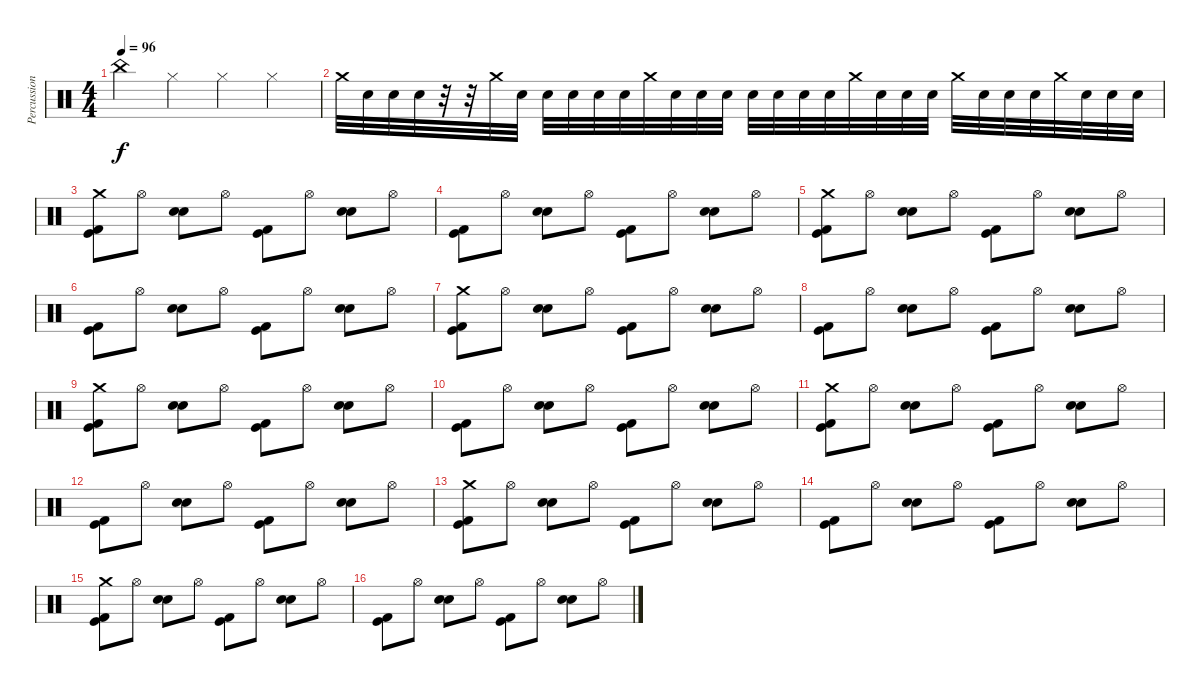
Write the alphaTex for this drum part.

\track ("Percussion" "Percussion") {instrument percussion}
\staff {score}
\articulation defaults
\ts (4 4)
\tempo 96
\clef neutral
\ks c "China (hit)".4{dy f} "Hi-Hat (closed)".4 "Hi-Hat (closed)".4 "Hi-Hat (closed)".4
|
"Crash medium (hit)".32 "Snare (hit)".32 "Snare (hit)".32 "Snare (hit)".32 r.32 r.32 "Crash medium (hit)".32 "Snare (hit)".32 "Snare (hit)".32 "Snare (hit)".32 "Snare (hit)".32 "Snare (hit)".32 "Crash medium (hit)".32 "Snare (hit)".32 "Snare (hit)".32 "Snare (hit)".32 "Snare (hit)".32 "Snare (hit)".32 "Snare (hit)".32 "Snare (hit)".32 "Crash medium (hit)".32 "Snare (hit)".32 "Snare (hit)".32 "Snare (hit)".32 "Crash medium (hit)".32 "Snare (hit)".32 "Snare (hit)".32 "Snare (hit)".32 "Crash medium (hit)".32 "Snare (hit)".32 "Snare (hit)".32 "Snare (hit)".32 |
("Crash medium (hit)" "Kick (hit) 2" "Kick (hit)").8 "Hi-Hat (open)".8 ("Snare (hit) 2" "Electric Snare (hit)").8 "Hi-Hat (open)".8 ("Kick (hit)" "Kick (hit) 2").8 "Hi-Hat (open)".8 ("Electric Snare (hit)" "Snare (hit) 2").8 "Hi-Hat (open)".8 |
("Kick (hit) 2" "Kick (hit)").8 "Hi-Hat (open)".8 ("Snare (hit) 2" "Electric Snare (hit)").8 "Hi-Hat (open)".8 ("Kick (hit)" "Kick (hit) 2").8 "Hi-Hat (open)".8 ("Electric Snare (hit)" "Snare (hit) 2").8 "Hi-Hat (open)".8 |
("Crash medium (hit)" "Kick (hit) 2" "Kick (hit)").8 "Hi-Hat (open)".8 ("Snare (hit) 2" "Electric Snare (hit)").8 "Hi-Hat (open)".8 ("Kick (hit)" "Kick (hit) 2").8 "Hi-Hat (open)".8 ("Electric Snare (hit)" "Snare (hit) 2").8 "Hi-Hat (open)".8 |
("Kick (hit) 2" "Kick (hit)").8 "Hi-Hat (open)".8 ("Snare (hit) 2" "Electric Snare (hit)").8 "Hi-Hat (open)".8 ("Kick (hit)" "Kick (hit) 2").8 "Hi-Hat (open)".8 ("Electric Snare (hit)" "Snare (hit) 2").8 "Hi-Hat (open)".8 |
("Crash medium (hit)" "Kick (hit) 2" "Kick (hit)").8 "Hi-Hat (open)".8 ("Snare (hit) 2" "Electric Snare (hit)").8 "Hi-Hat (open)".8 ("Kick (hit)" "Kick (hit) 2").8 "Hi-Hat (open)".8 ("Electric Snare (hit)" "Snare (hit) 2").8 "Hi-Hat (open)".8 |
("Kick (hit) 2" "Kick (hit)").8 "Hi-Hat (open)".8 ("Snare (hit) 2" "Electric Snare (hit)").8 "Hi-Hat (open)".8 ("Kick (hit)" "Kick (hit) 2").8 "Hi-Hat (open)".8 ("Electric Snare (hit)" "Snare (hit) 2").8 "Hi-Hat (open)".8 |
("Crash medium (hit)" "Kick (hit) 2" "Kick (hit)").8 "Hi-Hat (open)".8 ("Snare (hit) 2" "Electric Snare (hit)").8 "Hi-Hat (open)".8 ("Kick (hit)" "Kick (hit) 2").8 "Hi-Hat (open)".8 ("Electric Snare (hit)" "Snare (hit) 2").8 "Hi-Hat (open)".8 |
("Kick (hit) 2" "Kick (hit)").8 "Hi-Hat (open)".8 ("Snare (hit) 2" "Electric Snare (hit)").8 "Hi-Hat (open)".8 ("Kick (hit)" "Kick (hit) 2").8 "Hi-Hat (open)".8 ("Electric Snare (hit)" "Snare (hit) 2").8 "Hi-Hat (open)".8 |
("Crash medium (hit)" "Kick (hit) 2" "Kick (hit)").8 "Hi-Hat (open)".8 ("Snare (hit) 2" "Electric Snare (hit)").8 "Hi-Hat (open)".8 ("Kick (hit)" "Kick (hit) 2").8 "Hi-Hat (open)".8 ("Electric Snare (hit)" "Snare (hit) 2").8 "Hi-Hat (open)".8 |
("Kick (hit) 2" "Kick (hit)").8 "Hi-Hat (open)".8 ("Snare (hit) 2" "Electric Snare (hit)").8 "Hi-Hat (open)".8 ("Kick (hit)" "Kick (hit) 2").8 "Hi-Hat (open)".8 ("Electric Snare (hit)" "Snare (hit) 2").8 "Hi-Hat (open)".8 |
("Crash medium (hit)" "Kick (hit) 2" "Kick (hit)").8 "Hi-Hat (open)".8 ("Snare (hit) 2" "Electric Snare (hit)").8 "Hi-Hat (open)".8 ("Kick (hit)" "Kick (hit) 2").8 "Hi-Hat (open)".8 ("Electric Snare (hit)" "Snare (hit) 2").8 "Hi-Hat (open)".8 |
("Kick (hit) 2" "Kick (hit)").8 "Hi-Hat (open)".8 ("Snare (hit) 2" "Electric Snare (hit)").8 "Hi-Hat (open)".8 ("Kick (hit)" "Kick (hit) 2").8 "Hi-Hat (open)".8 ("Electric Snare (hit)" "Snare (hit) 2").8 "Hi-Hat (open)".8 |
("Crash medium (hit)" "Kick (hit) 2" "Kick (hit)").8 "Hi-Hat (open)".8 ("Snare (hit) 2" "Electric Snare (hit)").8 "Hi-Hat (open)".8 ("Kick (hit)" "Kick (hit) 2").8 "Hi-Hat (open)".8 ("Electric Snare (hit)" "Snare (hit) 2").8 "Hi-Hat (open)".8 |
("Kick (hit) 2" "Kick (hit)").8 "Hi-Hat (open)".8 ("Snare (hit) 2" "Electric Snare (hit)").8 "Hi-Hat (open)".8 ("Kick (hit)" "Kick (hit) 2").8 "Hi-Hat (open)".8 ("Electric Snare (hit)" "Snare (hit) 2").8 "Hi-Hat (open)".8
